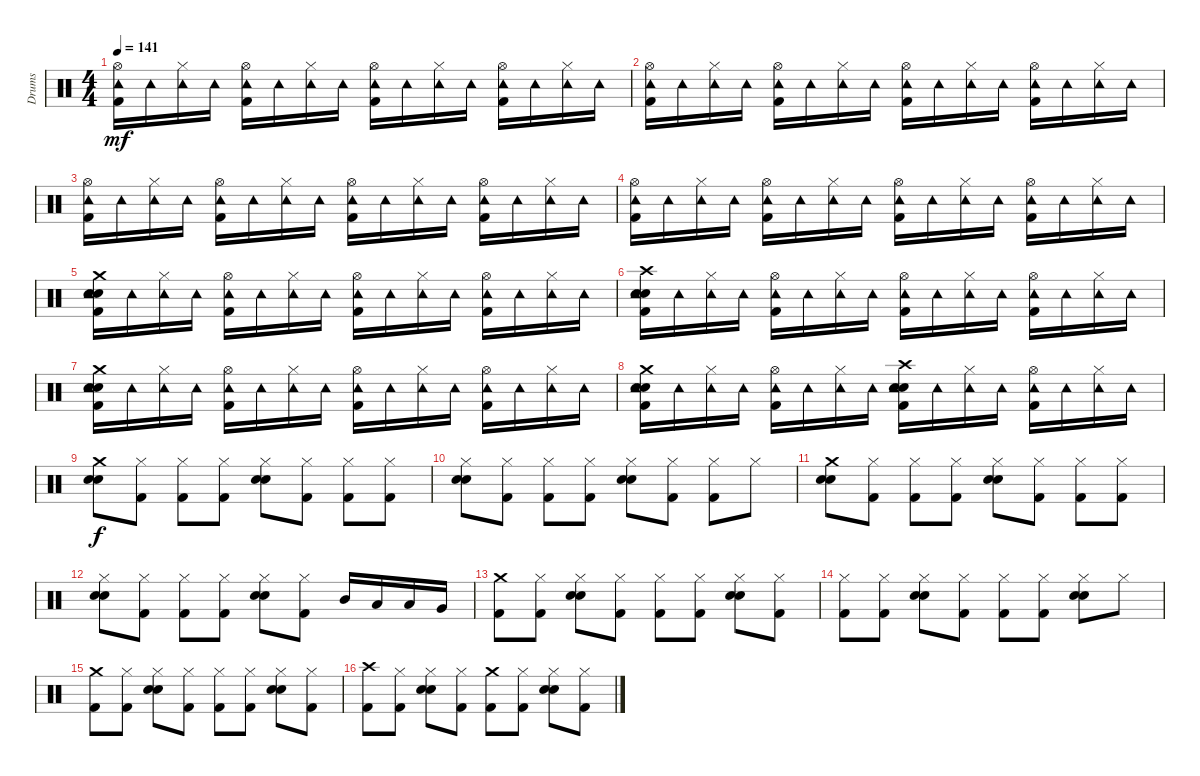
\track ("Drums " "Drums ") {instrument percussion}
\staff {score}
\articulation defaults
\ts (4 4)
\tempo 141
\clef neutral
\ks c
("Hi-Hat (open)" "Tambourine (hit)" "Kick (hit) 2").16{dy mf} "Tambourine (hit)".16 ("Hi-Hat (closed)" "Tambourine (hit)").16 "Tambourine (hit)".16 ("Hi-Hat (open)" "Tambourine (hit)" "Kick (hit) 2").16 "Tambourine (hit)".16 ("Hi-Hat (closed)" "Tambourine (hit)").16 "Tambourine (hit)".16 ("Hi-Hat (open)" "Tambourine (hit)" "Kick (hit) 2").16 "Tambourine (hit)".16 ("Hi-Hat (closed)" "Tambourine (hit)").16 "Tambourine (hit)".16 ("Hi-Hat (open)" "Tambourine (hit)" "Kick (hit) 2").16 "Tambourine (hit)".16 ("Hi-Hat (closed)" "Tambourine (hit)").16 "Tambourine (hit)".16 |
("Hi-Hat (open)" "Tambourine (hit)" "Kick (hit) 2").16 "Tambourine (hit)".16 ("Hi-Hat (closed)" "Tambourine (hit)").16 "Tambourine (hit)".16 ("Hi-Hat (open)" "Tambourine (hit)" "Kick (hit) 2").16 "Tambourine (hit)".16 ("Hi-Hat (closed)" "Tambourine (hit)").16 "Tambourine (hit)".16 ("Hi-Hat (open)" "Tambourine (hit)" "Kick (hit) 2").16 "Tambourine (hit)".16 ("Hi-Hat (closed)" "Tambourine (hit)").16 "Tambourine (hit)".16 ("Hi-Hat (open)" "Tambourine (hit)" "Kick (hit) 2").16 "Tambourine (hit)".16 ("Hi-Hat (closed)" "Tambourine (hit)").16 "Tambourine (hit)".16 |
("Hi-Hat (open)" "Tambourine (hit)" "Kick (hit) 2").16 "Tambourine (hit)".16 ("Hi-Hat (closed)" "Tambourine (hit)").16 "Tambourine (hit)".16 ("Hi-Hat (open)" "Tambourine (hit)" "Kick (hit) 2").16 "Tambourine (hit)".16 ("Hi-Hat (closed)" "Tambourine (hit)").16 "Tambourine (hit)".16 ("Hi-Hat (open)" "Tambourine (hit)" "Kick (hit) 2").16 "Tambourine (hit)".16 ("Hi-Hat (closed)" "Tambourine (hit)").16 "Tambourine (hit)".16 ("Hi-Hat (open)" "Tambourine (hit)" "Kick (hit) 2").16 "Tambourine (hit)".16 ("Hi-Hat (closed)" "Tambourine (hit)").16 "Tambourine (hit)".16 |
("Hi-Hat (open)" "Tambourine (hit)" "Kick (hit) 2").16 "Tambourine (hit)".16 ("Hi-Hat (closed)" "Tambourine (hit)").16 "Tambourine (hit)".16 ("Hi-Hat (open)" "Tambourine (hit)" "Kick (hit) 2").16 "Tambourine (hit)".16 ("Hi-Hat (closed)" "Tambourine (hit)").16 "Tambourine (hit)".16 ("Hi-Hat (open)" "Tambourine (hit)" "Kick (hit) 2").16 "Tambourine (hit)".16 ("Hi-Hat (closed)" "Tambourine (hit)").16 "Tambourine (hit)".16 ("Hi-Hat (open)" "Tambourine (hit)" "Kick (hit) 2").16 "Tambourine (hit)".16 ("Hi-Hat (closed)" "Tambourine (hit)").16 "Tambourine (hit)".16 |
("Crash medium (hit)" "Snare (hit) 2" "Electric Snare (hit)" "Tambourine (hit)" "Kick (hit) 2").16 "Tambourine (hit)".16 ("Hi-Hat (closed)" "Tambourine (hit)").16 "Tambourine (hit)".16 ("Hi-Hat (open)" "Tambourine (hit)" "Kick (hit) 2").16 "Tambourine (hit)".16 ("Hi-Hat (closed)" "Tambourine (hit)").16 "Tambourine (hit)".16 ("Hi-Hat (open)" "Tambourine (hit)" "Kick (hit) 2").16 "Tambourine (hit)".16 ("Hi-Hat (closed)" "Tambourine (hit)").16 "Tambourine (hit)".16 ("Hi-Hat (open)" "Tambourine (hit)" "Kick (hit) 2").16 "Tambourine (hit)".16 ("Hi-Hat (closed)" "Tambourine (hit)").16 "Tambourine (hit)".16 |
("Crash high (hit)" "Snare (hit) 2" "Electric Snare (hit)" "Tambourine (hit)" "Kick (hit) 2").16 "Tambourine (hit)".16 ("Hi-Hat (closed)" "Tambourine (hit)").16 "Tambourine (hit)".16 ("Hi-Hat (open)" "Tambourine (hit)" "Kick (hit) 2").16 "Tambourine (hit)".16 ("Hi-Hat (closed)" "Tambourine (hit)").16 "Tambourine (hit)".16 ("Hi-Hat (open)" "Tambourine (hit)" "Kick (hit) 2").16 "Tambourine (hit)".16 ("Hi-Hat (closed)" "Tambourine (hit)").16 "Tambourine (hit)".16 ("Hi-Hat (open)" "Tambourine (hit)" "Kick (hit) 2").16 "Tambourine (hit)".16 ("Hi-Hat (closed)" "Tambourine (hit)").16 "Tambourine (hit)".16 |
("Crash medium (hit)" "Snare (hit) 2" "Electric Snare (hit)" "Tambourine (hit)" "Kick (hit) 2").16 "Tambourine (hit)".16 ("Hi-Hat (closed)" "Tambourine (hit)").16 "Tambourine (hit)".16 ("Hi-Hat (open)" "Tambourine (hit)" "Kick (hit) 2").16 "Tambourine (hit)".16 ("Hi-Hat (closed)" "Tambourine (hit)").16 "Tambourine (hit)".16 ("Hi-Hat (open)" "Tambourine (hit)" "Kick (hit) 2").16 "Tambourine (hit)".16 ("Hi-Hat (closed)" "Tambourine (hit)").16 "Tambourine (hit)".16 ("Hi-Hat (open)" "Tambourine (hit)" "Kick (hit) 2").16 "Tambourine (hit)".16 ("Hi-Hat (closed)" "Tambourine (hit)").16 "Tambourine (hit)".16 |
("Crash medium (hit)" "Snare (hit) 2" "Electric Snare (hit)" "Tambourine (hit)" "Kick (hit) 2").16 "Tambourine (hit)".16 ("Hi-Hat (closed)" "Tambourine (hit)").16 "Tambourine (hit)".16 ("Hi-Hat (open)" "Tambourine (hit)" "Kick (hit) 2").16 "Tambourine (hit)".16 ("Hi-Hat (closed)" "Tambourine (hit)").16 "Tambourine (hit)".16 ("Crash high (hit)" "Snare (hit) 2" "Electric Snare (hit)" "Tambourine (hit)" "Kick (hit) 2").16 "Tambourine (hit)".16 ("Hi-Hat (closed)" "Tambourine (hit)").16 "Tambourine (hit)".16 ("Hi-Hat (open)" "Tambourine (hit)" "Kick (hit) 2").16 "Tambourine (hit)".16 ("Hi-Hat (closed)" "Tambourine (hit)").16 "Tambourine (hit)".16 |
("Crash medium (hit)" "Snare (hit) 2" "Electric Snare (hit)").8{dy f} ("Hi-Hat (closed)" "Kick (hit) 2").8 ("Hi-Hat (closed)" "Kick (hit) 2").8 ("Hi-Hat (closed)" "Kick (hit) 2").8 ("Hi-Hat (closed)" "Snare (hit) 2" "Electric Snare (hit)").8 ("Hi-Hat (closed)" "Kick (hit) 2").8 ("Hi-Hat (closed)" "Kick (hit) 2").8 ("Hi-Hat (closed)" "Kick (hit) 2").8 |
("Hi-Hat (closed)" "Snare (hit) 2" "Electric Snare (hit)").8 ("Hi-Hat (closed)" "Kick (hit) 2").8 ("Hi-Hat (closed)" "Kick (hit) 2").8 ("Hi-Hat (closed)" "Kick (hit) 2").8 ("Hi-Hat (closed)" "Snare (hit) 2" "Electric Snare (hit)").8 ("Hi-Hat (closed)" "Kick (hit) 2").8 ("Hi-Hat (closed)" "Kick (hit) 2").8 "Hi-Hat (closed)".8 |
("Crash medium (hit)" "Snare (hit) 2" "Electric Snare (hit)").8 ("Hi-Hat (closed)" "Kick (hit) 2").8 ("Hi-Hat (closed)" "Kick (hit) 2").8 ("Hi-Hat (closed)" "Kick (hit) 2").8 ("Hi-Hat (closed)" "Snare (hit) 2" "Electric Snare (hit)").8 ("Hi-Hat (closed)" "Kick (hit) 2").8 ("Hi-Hat (closed)" "Kick (hit) 2").8 ("Hi-Hat (closed)" "Kick (hit) 2").8 |
("Hi-Hat (closed)" "Snare (hit) 2" "Electric Snare (hit)").8 ("Hi-Hat (closed)" "Kick (hit) 2").8 ("Hi-Hat (closed)" "Kick (hit) 2").8 ("Hi-Hat (closed)" "Kick (hit) 2").8 ("Hi-Hat (closed)" "Snare (hit) 2" "Electric Snare (hit)").8 ("Hi-Hat (closed)" "Kick (hit) 2").8 "Mid Tom (hit)".16 "Low Tom (hit)".16 "Low Tom (hit)".16 "Very Low Tom (hit)".16 |
("Crash medium (hit)" "Kick (hit) 2").8 ("Hi-Hat (closed)" "Kick (hit) 2").8 ("Hi-Hat (closed)" "Snare (hit) 2" "Electric Snare (hit)").8 ("Hi-Hat (closed)" "Kick (hit) 2").8 ("Hi-Hat (closed)" "Kick (hit) 2").8 ("Hi-Hat (closed)" "Kick (hit) 2").8 ("Hi-Hat (closed)" "Snare (hit) 2" "Electric Snare (hit)").8 ("Hi-Hat (closed)" "Kick (hit) 2").8 |
("Hi-Hat (closed)" "Kick (hit) 2").8 ("Hi-Hat (closed)" "Kick (hit) 2").8 ("Hi-Hat (closed)" "Snare (hit) 2" "Electric Snare (hit)").8 ("Hi-Hat (closed)" "Kick (hit) 2").8 ("Hi-Hat (closed)" "Kick (hit) 2").8 ("Hi-Hat (closed)" "Kick (hit) 2").8 ("Hi-Hat (closed)" "Snare (hit) 2" "Electric Snare (hit)").8 "Hi-Hat (closed)".8 |
("Crash medium (hit)" "Kick (hit) 2").8 ("Hi-Hat (closed)" "Kick (hit) 2").8 ("Hi-Hat (closed)" "Snare (hit) 2" "Electric Snare (hit)").8 ("Hi-Hat (closed)" "Kick (hit) 2").8 ("Hi-Hat (closed)" "Kick (hit) 2").8 ("Hi-Hat (closed)" "Kick (hit) 2").8 ("Hi-Hat (closed)" "Snare (hit) 2" "Electric Snare (hit)").8 ("Hi-Hat (closed)" "Kick (hit) 2").8 |
("Crash high (hit)" "Kick (hit) 2").8 ("Hi-Hat (closed)" "Kick (hit) 2").8 ("Hi-Hat (closed)" "Snare (hit) 2" "Electric Snare (hit)").8 ("Hi-Hat (closed)" "Kick (hit) 2").8 ("Crash medium (hit)" "Kick (hit) 2").8 ("Hi-Hat (closed)" "Kick (hit) 2").8 ("Hi-Hat (closed)" "Snare (hit) 2" "Electric Snare (hit)").8 ("Hi-Hat (closed)" "Kick (hit) 2").8
